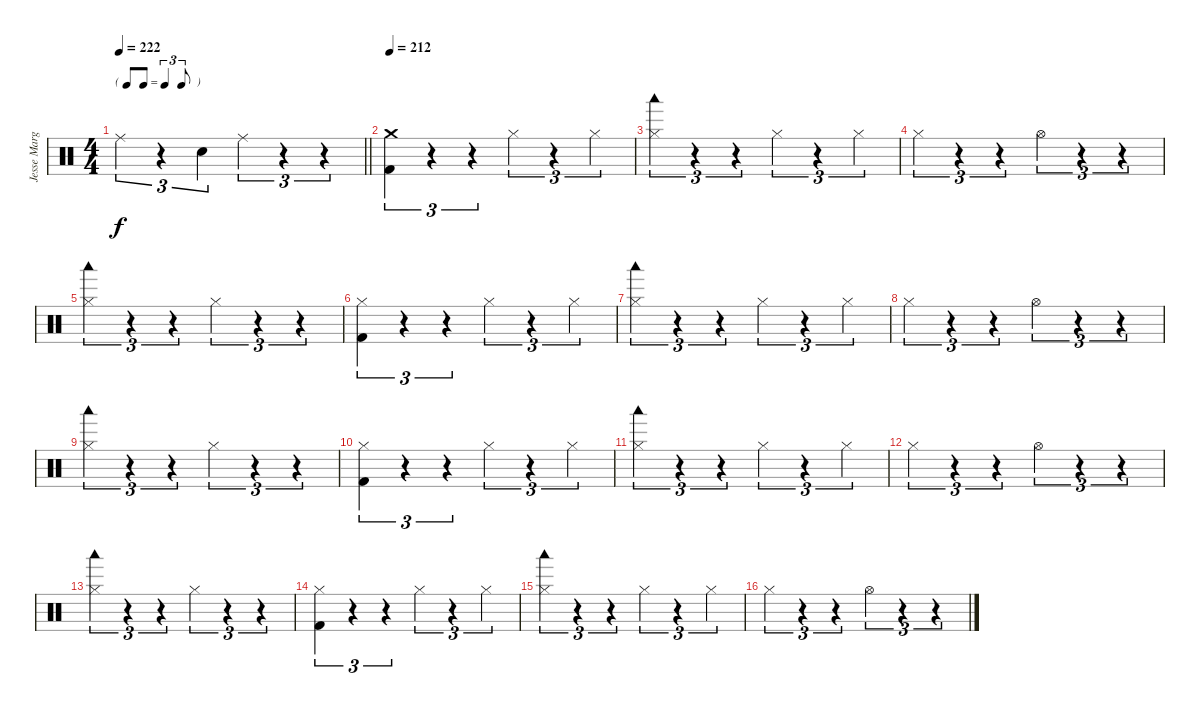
\track ("Jesse Margera" "Jesse Marg") {instrument percussion}
\staff {score}
\articulation defaults
\ts (4 4)
\tf triplet8th
\tempo 222
\clef neutral
\barLineRight lightlight
\ks c "Ride (middle)".4{tu (3 2) dy f}
r.4{tu (3 2)} "Electric Snare (hit)".4{tu (3 2)} "Ride (middle)".4{tu (3 2)} r.4{tu (3 2)} r.4{tu (3 2)} |
\section ("" "")
\tempo 212
("Crash medium (hit)" "Kick (hit) 2").4{tu (3 2)} r.4{tu (3 2)} r.4{tu (3 2)} "Hi-Hat (closed)".4{tu (3 2)} r.4{tu (3 2)} "Hi-Hat (closed)".4{tu (3 2)} |
("Hi-Hat (closed)" "Woodblock low (hit)").4{tu (3 2)} r.4{tu (3 2)} r.4{tu (3 2)} "Hi-Hat (closed)".4{tu (3 2)} r.4{tu (3 2)} "Hi-Hat (closed)".4{tu (3 2)} |
"Hi-Hat (closed)".4{tu (3 2)} r.4{tu (3 2)} r.4{tu (3 2)} "Hi-Hat (open)".4{tu (3 2)} r.4{tu (3 2)} r.4{tu (3 2)} |
("Hi-Hat (closed)" "Woodblock low (hit)").4{tu (3 2)} r.4{tu (3 2)} r.4{tu (3 2)} "Hi-Hat (closed)".4{tu (3 2)} r.4{tu (3 2)} r.4{tu (3 2)} |
("Hi-Hat (closed)" "Kick (hit) 2").4{tu (3 2)} r.4{tu (3 2)} r.4{tu (3 2)} "Hi-Hat (closed)".4{tu (3 2)} r.4{tu (3 2)} "Hi-Hat (closed)".4{tu (3 2)} |
("Hi-Hat (closed)" "Woodblock low (hit)").4{tu (3 2)} r.4{tu (3 2)} r.4{tu (3 2)} "Hi-Hat (closed)".4{tu (3 2)} r.4{tu (3 2)} "Hi-Hat (closed)".4{tu (3 2)} |
"Hi-Hat (closed)".4{tu (3 2)} r.4{tu (3 2)} r.4{tu (3 2)} "Hi-Hat (open)".4{tu (3 2)} r.4{tu (3 2)} r.4{tu (3 2)} |
("Hi-Hat (closed)" "Woodblock low (hit)").4{tu (3 2)} r.4{tu (3 2)} r.4{tu (3 2)} "Hi-Hat (closed)".4{tu (3 2)} r.4{tu (3 2)} r.4{tu (3 2)} |
("Hi-Hat (closed)" "Kick (hit) 2").4{tu (3 2)} r.4{tu (3 2)} r.4{tu (3 2)} "Hi-Hat (closed)".4{tu (3 2)} r.4{tu (3 2)} "Hi-Hat (closed)".4{tu (3 2)} |
("Hi-Hat (closed)" "Woodblock low (hit)").4{tu (3 2)} r.4{tu (3 2)} r.4{tu (3 2)} "Hi-Hat (closed)".4{tu (3 2)} r.4{tu (3 2)} "Hi-Hat (closed)".4{tu (3 2)} |
"Hi-Hat (closed)".4{tu (3 2)} r.4{tu (3 2)} r.4{tu (3 2)} "Hi-Hat (open)".4{tu (3 2)} r.4{tu (3 2)} r.4{tu (3 2)} |
("Hi-Hat (closed)" "Woodblock low (hit)").4{tu (3 2)} r.4{tu (3 2)} r.4{tu (3 2)} "Hi-Hat (closed)".4{tu (3 2)} r.4{tu (3 2)} r.4{tu (3 2)} |
("Hi-Hat (closed)" "Kick (hit) 2").4{tu (3 2)} r.4{tu (3 2)} r.4{tu (3 2)} "Hi-Hat (closed)".4{tu (3 2)} r.4{tu (3 2)} "Hi-Hat (closed)".4{tu (3 2)} |
("Hi-Hat (closed)" "Woodblock low (hit)").4{tu (3 2)} r.4{tu (3 2)} r.4{tu (3 2)} "Hi-Hat (closed)".4{tu (3 2)} r.4{tu (3 2)} "Hi-Hat (closed)".4{tu (3 2)} |
"Hi-Hat (closed)".4{tu (3 2)} r.4{tu (3 2)} r.4{tu (3 2)} "Hi-Hat (open)".4{tu (3 2)} r.4{tu (3 2)} r.4{tu (3 2)}
